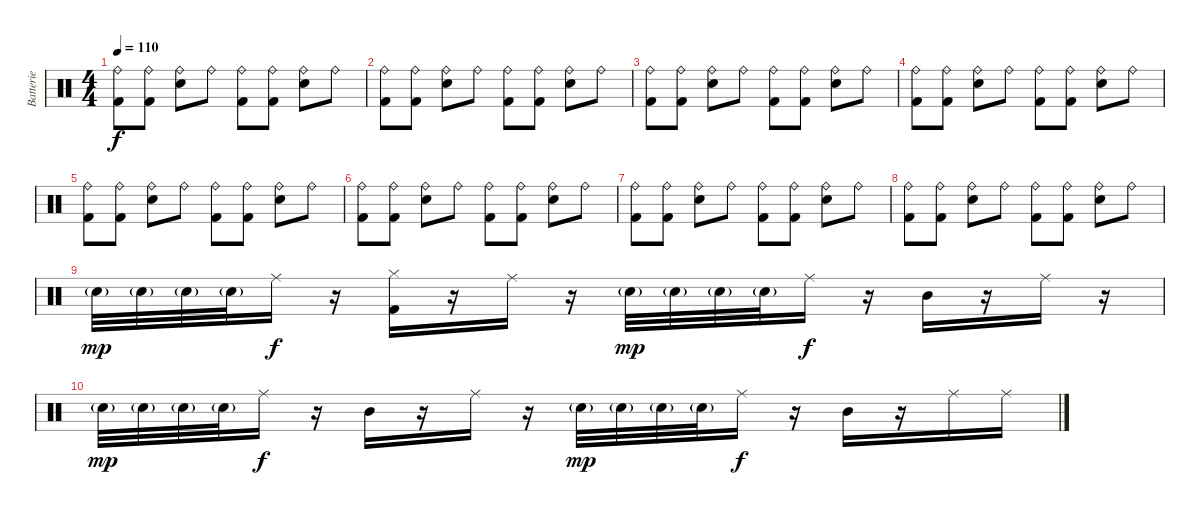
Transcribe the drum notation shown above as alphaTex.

\track ("Batterie" "Batterie") {instrument percussion}
\staff {score}
\articulation defaults
\ts (4 4)
\tempo 110
\clef neutral
\ks c
("Ride (bell)" "Kick (hit) 2").8{dy f} ("Ride (bell)" "Kick (hit) 2").8 ("Ride (bell)" "Electric Snare (hit)").8 "Ride (bell)".8 ("Ride (bell)" "Kick (hit) 2").8 ("Ride (bell)" "Kick (hit) 2").8 ("Ride (bell)" "Electric Snare (hit)").8 "Ride (bell)".8 |
("Ride (bell)" "Kick (hit) 2").8 ("Ride (bell)" "Kick (hit) 2").8 ("Ride (bell)" "Electric Snare (hit)").8 "Ride (bell)".8 ("Ride (bell)" "Kick (hit) 2").8 ("Ride (bell)" "Kick (hit) 2").8 ("Ride (bell)" "Electric Snare (hit)").8 "Ride (bell)".8 |
("Ride (bell)" "Kick (hit) 2").8 ("Ride (bell)" "Kick (hit) 2").8 ("Ride (bell)" "Electric Snare (hit)").8 "Ride (bell)".8 ("Ride (bell)" "Kick (hit) 2").8 ("Ride (bell)" "Kick (hit) 2").8 ("Ride (bell)" "Electric Snare (hit)").8 "Ride (bell)".8 |
("Ride (bell)" "Kick (hit) 2").8 ("Ride (bell)" "Kick (hit) 2").8 ("Ride (bell)" "Electric Snare (hit)").8 "Ride (bell)".8 ("Ride (bell)" "Kick (hit) 2").8 ("Ride (bell)" "Kick (hit) 2").8 ("Ride (bell)" "Electric Snare (hit)").8 "Ride (bell)".8 |
("Ride (bell)" "Kick (hit) 2").8 ("Ride (bell)" "Kick (hit) 2").8 ("Ride (bell)" "Electric Snare (hit)").8 "Ride (bell)".8 ("Ride (bell)" "Kick (hit) 2").8 ("Ride (bell)" "Kick (hit) 2").8 ("Ride (bell)" "Electric Snare (hit)").8 "Ride (bell)".8 |
("Ride (bell)" "Kick (hit) 2").8 ("Ride (bell)" "Kick (hit) 2").8 ("Ride (bell)" "Electric Snare (hit)").8 "Ride (bell)".8 ("Ride (bell)" "Kick (hit) 2").8 ("Ride (bell)" "Kick (hit) 2").8 ("Ride (bell)" "Electric Snare (hit)").8 "Ride (bell)".8 |
("Ride (bell)" "Kick (hit) 2").8 ("Ride (bell)" "Kick (hit) 2").8 ("Ride (bell)" "Electric Snare (hit)").8 "Ride (bell)".8 ("Ride (bell)" "Kick (hit) 2").8 ("Ride (bell)" "Kick (hit) 2").8 ("Ride (bell)" "Electric Snare (hit)").8 "Ride (bell)".8 |
("Ride (bell)" "Kick (hit) 2").8 ("Ride (bell)" "Kick (hit) 2").8 ("Ride (bell)" "Electric Snare (hit)").8 "Ride (bell)".8 ("Ride (bell)" "Kick (hit) 2").8 ("Ride (bell)" "Kick (hit) 2").8 ("Ride (bell)" "Electric Snare (hit)").8 "Ride (bell)".8 |
"Electric Snare (hit)"{g}.32{dy mp} "Electric Snare (hit)"{g}.32 "Electric Snare (hit)"{g}.32 "Electric Snare (hit)"{g}.32 "Ride (middle)".16{dy f} r.16 ("Hi-Hat (closed)" "Kick (hit) 2").16 r.16 "Ride (middle)".16 r.16 "Electric Snare (hit)"{g}.32{dy mp} "Electric Snare (hit)"{g}.32 "Electric Snare (hit)"{g}.32 "Electric Snare (hit)"{g}.32 "Ride (middle)".16{dy f} r.16 "Mid Tom (hit)".16 r.16 "Ride (middle)".16 r.16 |
"Electric Snare (hit)"{g}.32{dy mp} "Electric Snare (hit)"{g}.32 "Electric Snare (hit)"{g}.32 "Electric Snare (hit)"{g}.32 "Ride (middle)".16{dy f} r.16 "Mid Tom (hit)".16 r.16 "Ride (middle)".16 r.16 "Electric Snare (hit)"{g}.32{dy mp} "Electric Snare (hit)"{g}.32 "Electric Snare (hit)"{g}.32 "Electric Snare (hit)"{g}.32 "Ride (middle)".16{dy f} r.16 "Mid Tom (hit)".16 r.16 "Ride (middle)".16 "Ride (middle)".16
